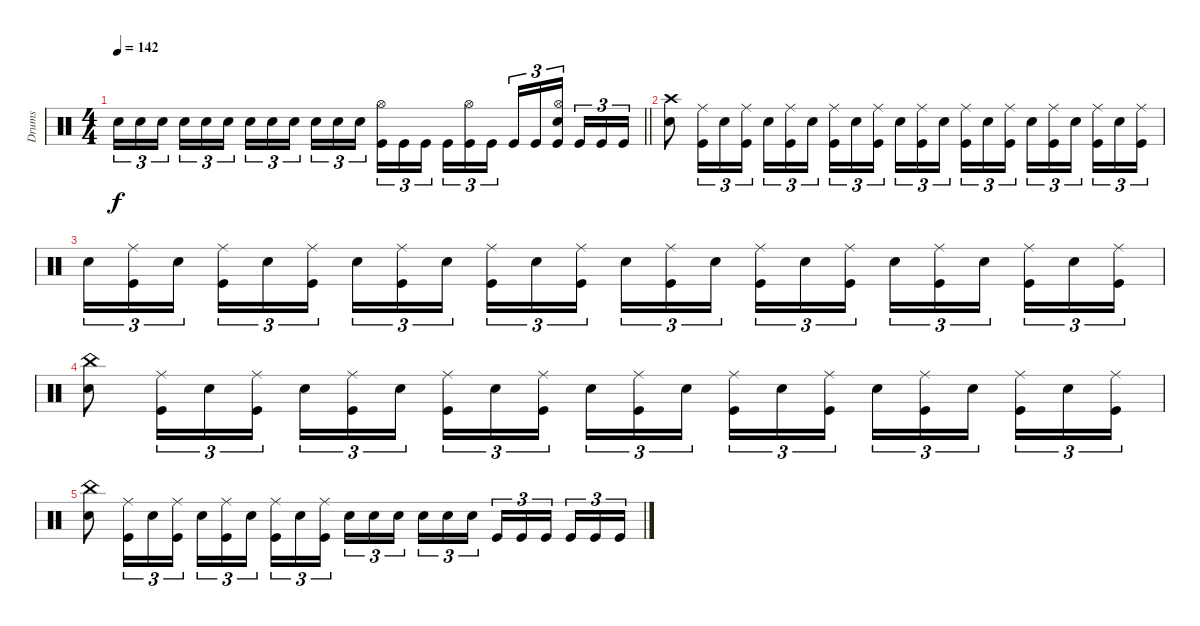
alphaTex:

\track ("Drums" "Drums") {instrument percussion}
\staff
\articulation defaults
\ts (4 4)
\tempo 142
\clef neutral
\barLineRight lightlight
\ks c "Electric Snare (hit)".16{tu (3 2) dy f} "Electric Snare (hit)".16{tu (3 2)} "Electric Snare (hit)".16{tu (3 2) beam splitsecondary} "Electric Snare (hit)".16{tu (3 2)} "Electric Snare (hit)".16{tu (3 2)} "Electric Snare (hit)".16{tu (3 2)} "Electric Snare (hit)".16{tu (3 2)} "Electric Snare (hit)".16{tu (3 2)} "Electric Snare (hit)".16{tu (3 2) beam splitsecondary} "Electric Snare (hit)".16{tu (3 2)} "Electric Snare (hit)".16{tu (3 2)} "Electric Snare (hit)".16{tu (3 2)}
("Hi-Hat (open)" "Kick (hit)").16{tu (3 2)} "Kick (hit)".16{tu (3 2)} "Kick (hit)".16{tu (3 2) beam splitsecondary} "Kick (hit)".16{tu (3 2)} ("Hi-Hat (open)" "Kick (hit)").16{tu (3 2)} "Kick (hit)".16{tu (3 2)} "Kick (hit)".16{tu (3 2)} "Kick (hit)".16{tu (3 2)} ("Hi-Hat (open)" "Electric Snare (hit)" "Kick (hit)").16{tu (3 2) beam splitsecondary} "Kick (hit)".16{tu (3 2)} "Kick (hit)".16{tu (3 2)} "Kick (hit)".16{tu (3 2)} |
("Crash high (hit)" "Electric Snare (hit)").8 ("Ride (middle)" "Kick (hit)").16{tu (3 2)} "Electric Snare (hit)".16{tu (3 2)} ("Ride (middle)" "Kick (hit)").16{tu (3 2)} "Electric Snare (hit)".16{tu (3 2)} ("Ride (middle)" "Kick (hit)").16{tu (3 2)} "Electric Snare (hit)".16{tu (3 2) beam splitsecondary} ("Ride (middle)" "Kick (hit)").16{tu (3 2)} "Electric Snare (hit)".16{tu (3 2)} ("Ride (middle)" "Kick (hit)").16{tu (3 2)} "Electric Snare (hit)".16{tu (3 2)} ("Ride (middle)" "Kick (hit)").16{tu (3 2)} "Electric Snare (hit)".16{tu (3 2) beam splitsecondary} ("Ride (middle)" "Kick (hit)").16{tu (3 2)} "Electric Snare (hit)".16{tu (3 2)} ("Ride (middle)" "Kick (hit)").16{tu (3 2)} "Electric Snare (hit)".16{tu (3 2)} ("Ride (middle)" "Kick (hit)").16{tu (3 2)} "Electric Snare (hit)".16{tu (3 2) beam splitsecondary} ("Ride (middle)" "Kick (hit)").16{tu (3 2)} "Electric Snare (hit)".16{tu (3 2)} ("Ride (middle)" "Kick (hit)").16{tu (3 2)} |
"Electric Snare (hit)".16{tu (3 2)} ("Ride (middle)" "Kick (hit)").16{tu (3 2)} "Electric Snare (hit)".16{tu (3 2) beam splitsecondary} ("Ride (middle)" "Kick (hit)").16{tu (3 2)} "Electric Snare (hit)".16{tu (3 2)} ("Ride (middle)" "Kick (hit)").16{tu (3 2)} "Electric Snare (hit)".16{tu (3 2)} ("Ride (middle)" "Kick (hit)").16{tu (3 2)} "Electric Snare (hit)".16{tu (3 2) beam splitsecondary} ("Ride (middle)" "Kick (hit)").16{tu (3 2)} "Electric Snare (hit)".16{tu (3 2)} ("Ride (middle)" "Kick (hit)").16{tu (3 2)} "Electric Snare (hit)".16{tu (3 2)} ("Ride (middle)" "Kick (hit)").16{tu (3 2)} "Electric Snare (hit)".16{tu (3 2) beam splitsecondary} ("Ride (middle)" "Kick (hit)").16{tu (3 2)} "Electric Snare (hit)".16{tu (3 2)} ("Ride (middle)" "Kick (hit)").16{tu (3 2)} "Electric Snare (hit)".16{tu (3 2)} ("Ride (middle)" "Kick (hit)").16{tu (3 2)} "Electric Snare (hit)".16{tu (3 2) beam splitsecondary} ("Ride (middle)" "Kick (hit)").16{tu (3 2)} "Electric Snare (hit)".16{tu (3 2)} ("Ride (middle)" "Kick (hit)").16{tu (3 2)} |
("China (hit)" "Electric Snare (hit)").8 ("Ride (middle)" "Kick (hit)").16{tu (3 2)} "Electric Snare (hit)".16{tu (3 2)} ("Ride (middle)" "Kick (hit)").16{tu (3 2)} "Electric Snare (hit)".16{tu (3 2)} ("Ride (middle)" "Kick (hit)").16{tu (3 2)} "Electric Snare (hit)".16{tu (3 2) beam splitsecondary} ("Ride (middle)" "Kick (hit)").16{tu (3 2)} "Electric Snare (hit)".16{tu (3 2)} ("Ride (middle)" "Kick (hit)").16{tu (3 2)} "Electric Snare (hit)".16{tu (3 2)} ("Ride (middle)" "Kick (hit)").16{tu (3 2)} "Electric Snare (hit)".16{tu (3 2) beam splitsecondary} ("Ride (middle)" "Kick (hit)").16{tu (3 2)} "Electric Snare (hit)".16{tu (3 2)} ("Ride (middle)" "Kick (hit)").16{tu (3 2)} "Electric Snare (hit)".16{tu (3 2)} ("Ride (middle)" "Kick (hit)").16{tu (3 2)} "Electric Snare (hit)".16{tu (3 2) beam splitsecondary} ("Ride (middle)" "Kick (hit)").16{tu (3 2)} "Electric Snare (hit)".16{tu (3 2)} ("Ride (middle)" "Kick (hit)").16{tu (3 2)} |
("China (hit)" "Electric Snare (hit)").8 ("Ride (middle)" "Kick (hit)").16{tu (3 2)} "Electric Snare (hit)".16{tu (3 2)} ("Ride (middle)" "Kick (hit)").16{tu (3 2)} "Electric Snare (hit)".16{tu (3 2)} ("Ride (middle)" "Kick (hit)").16{tu (3 2)} "Electric Snare (hit)".16{tu (3 2) beam splitsecondary} ("Ride (middle)" "Kick (hit)").16{tu (3 2)} "Electric Snare (hit)".16{tu (3 2)} ("Ride (middle)" "Kick (hit)").16{tu (3 2)} "Electric Snare (hit)".16{tu (3 2)} "Electric Snare (hit)".16{tu (3 2)} "Electric Snare (hit)".16{tu (3 2) beam splitsecondary} "Electric Snare (hit)".16{tu (3 2)} "Electric Snare (hit)".16{tu (3 2)} "Electric Snare (hit)".16{tu (3 2)} "Kick (hit)".16{tu (3 2)} "Kick (hit)".16{tu (3 2)} "Kick (hit)".16{tu (3 2) beam splitsecondary} "Kick (hit)".16{tu (3 2)} "Kick (hit)".16{tu (3 2)} "Kick (hit)".16{tu (3 2)}
